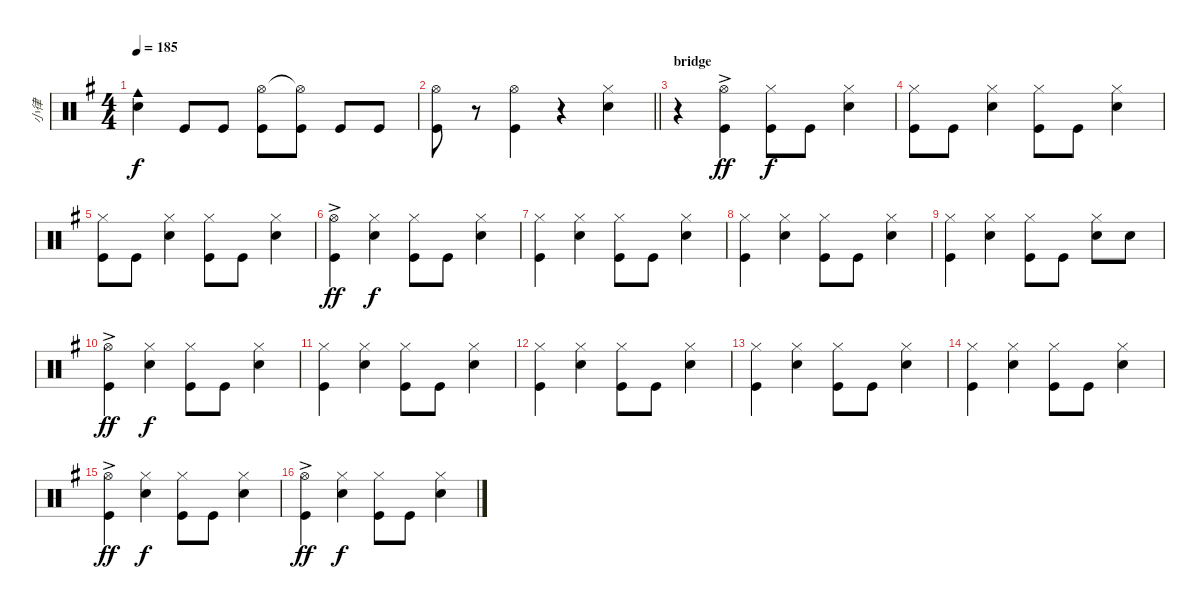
\track ("小律" "小律") {instrument percussion}
\staff {score}
\articulation defaults
\ts (4 4)
\tempo 185
\clef neutral
\ks g
("Cowbell medium (hit)" "Snare (hit) 2").4{dy f} "Kick (hit)".8 "Kick (hit)".8 ("Kick (hit)" "Hi-Hat (open)").8 ("Kick (hit)" "Hi-Hat (open)"{t}).8 "Kick (hit)".8 "Kick (hit)".8 |
\barLineRight lightlight
("Kick (hit)" "Hi-Hat (open)").8 r.8 ("Kick (hit)" "Hi-Hat (open)").4 r.4 ("Snare (hit) 2" "Hi-Hat (closed)").4 |
\section ("" "bridge")
r.4 ("Hi-Hat (open)" "Kick (hit)"{ac}).4{dy ff} ("Kick (hit)" "Hi-Hat (closed)").8{dy f} "Kick (hit)".8 ("Snare (hit) 2" "Hi-Hat (closed)").4 |
("Hi-Hat (closed)" "Kick (hit)").8 "Kick (hit)".8 ("Hi-Hat (closed)" "Snare (hit) 2").4 ("Hi-Hat (closed)" "Kick (hit)").8 "Kick (hit)".8 ("Hi-Hat (closed)" "Snare (hit) 2").4 |
("Hi-Hat (closed)" "Kick (hit)").8 "Kick (hit)".8 ("Hi-Hat (closed)" "Snare (hit) 2").4 ("Hi-Hat (closed)" "Kick (hit)").8 "Kick (hit)".8 ("Hi-Hat (closed)" "Snare (hit) 2").4 |
("Hi-Hat (open)"{ac} "Kick (hit)").4{dy ff} ("Hi-Hat (closed)" "Snare (hit) 2").4{dy f} ("Hi-Hat (closed)" "Kick (hit)").8 "Kick (hit)".8 ("Hi-Hat (closed)" "Snare (hit) 2").4 |
("Hi-Hat (closed)" "Kick (hit)").4 ("Hi-Hat (closed)" "Snare (hit) 2").4 ("Hi-Hat (closed)" "Kick (hit)").8 "Kick (hit)".8 ("Hi-Hat (closed)" "Snare (hit) 2").4 |
("Hi-Hat (closed)" "Kick (hit)").4 ("Hi-Hat (closed)" "Snare (hit) 2").4 ("Hi-Hat (closed)" "Kick (hit)").8 "Kick (hit)".8 ("Hi-Hat (closed)" "Snare (hit) 2").4 |
("Hi-Hat (closed)" "Kick (hit)").4 ("Hi-Hat (closed)" "Snare (hit) 2").4 ("Hi-Hat (closed)" "Kick (hit)").8 "Kick (hit)".8 ("Hi-Hat (closed)" "Snare (hit) 2").8 "Snare (hit) 2".8 |
("Hi-Hat (open)"{ac} "Kick (hit)").4{dy ff} ("Hi-Hat (closed)" "Snare (hit) 2").4{dy f} ("Hi-Hat (closed)" "Kick (hit)").8 "Kick (hit)".8 ("Hi-Hat (closed)" "Snare (hit) 2").4 |
("Hi-Hat (closed)" "Kick (hit)").4 ("Hi-Hat (closed)" "Snare (hit) 2").4 ("Hi-Hat (closed)" "Kick (hit)").8 "Kick (hit)".8 ("Hi-Hat (closed)" "Snare (hit) 2").4 |
("Hi-Hat (closed)" "Kick (hit)").4 ("Hi-Hat (closed)" "Snare (hit) 2").4 ("Hi-Hat (closed)" "Kick (hit)").8 "Kick (hit)".8 ("Hi-Hat (closed)" "Snare (hit) 2").4 |
("Hi-Hat (closed)" "Kick (hit)").4 ("Hi-Hat (closed)" "Snare (hit) 2").4 ("Hi-Hat (closed)" "Kick (hit)").8 "Kick (hit)".8 ("Hi-Hat (closed)" "Snare (hit) 2").4 |
("Hi-Hat (closed)" "Kick (hit)").4 ("Hi-Hat (closed)" "Snare (hit) 2").4 ("Hi-Hat (closed)" "Kick (hit)").8 "Kick (hit)".8 ("Hi-Hat (closed)" "Snare (hit) 2").4 |
("Hi-Hat (open)"{ac} "Kick (hit)").4{dy ff} ("Hi-Hat (closed)" "Snare (hit) 2").4{dy f} ("Hi-Hat (closed)" "Kick (hit)").8 "Kick (hit)".8 ("Hi-Hat (closed)" "Snare (hit) 2").4 |
("Hi-Hat (open)"{ac} "Kick (hit)").4{dy ff} ("Hi-Hat (closed)" "Snare (hit) 2").4{dy f} ("Hi-Hat (closed)" "Kick (hit)").8 "Kick (hit)".8 ("Hi-Hat (closed)" "Snare (hit) 2").4
